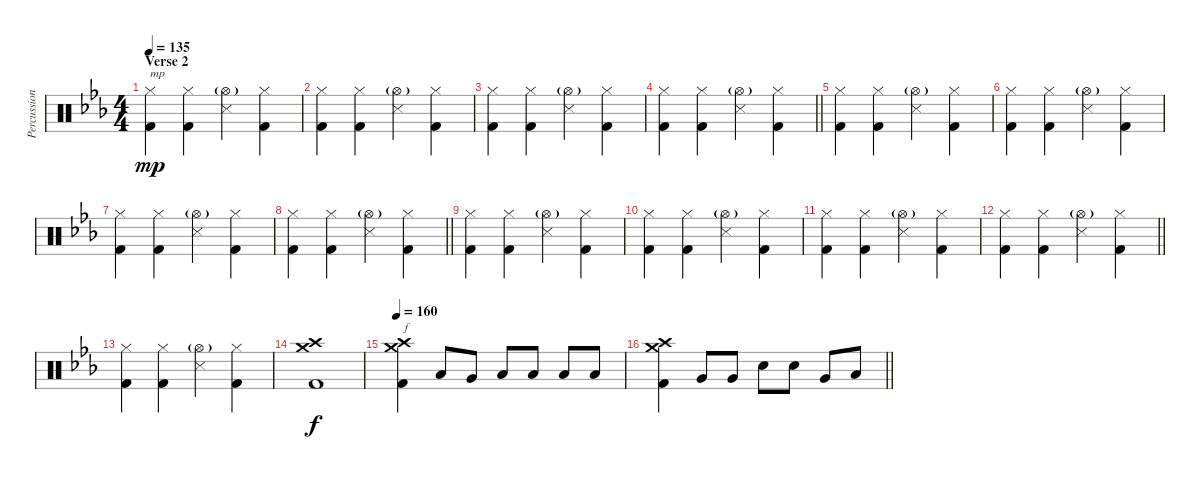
\track ("Percussion" "Percussion") {instrument percussion}
\staff {score}
\articulation defaults
\ts (4 4)
\section ("" "Verse 2")
\tempo 135
\clef neutral
\ks eb
("Hi-Hat (closed)" "Kick (hit) 2").4{txt "mp" dy mp} ("Hi-Hat (closed)" "Kick (hit) 2").4 ("Hi-Hat (open)"{g} "Snare (side stick) 3").4 ("Hi-Hat (closed)" "Kick (hit) 2").4 |
("Hi-Hat (closed)" "Kick (hit) 2").4 ("Hi-Hat (closed)" "Kick (hit) 2").4 ("Hi-Hat (open)"{g} "Snare (side stick) 3").4 ("Hi-Hat (closed)" "Kick (hit) 2").4 |
("Hi-Hat (closed)" "Kick (hit) 2").4 ("Hi-Hat (closed)" "Kick (hit) 2").4 ("Hi-Hat (open)"{g} "Snare (side stick) 3").4 ("Hi-Hat (closed)" "Kick (hit) 2").4 |
\barLineRight lightlight
("Hi-Hat (closed)" "Kick (hit) 2").4 ("Hi-Hat (closed)" "Kick (hit) 2").4 ("Hi-Hat (open)"{g} "Snare (side stick) 3").4 ("Hi-Hat (closed)" "Kick (hit) 2").4 |
\section ("" "")
("Hi-Hat (closed)" "Kick (hit) 2").4 ("Hi-Hat (closed)" "Kick (hit) 2").4 ("Hi-Hat (open)"{g} "Snare (side stick) 3").4 ("Hi-Hat (closed)" "Kick (hit) 2").4 |
("Hi-Hat (closed)" "Kick (hit) 2").4 ("Hi-Hat (closed)" "Kick (hit) 2").4 ("Hi-Hat (open)"{g} "Snare (side stick) 3").4 ("Hi-Hat (closed)" "Kick (hit) 2").4 |
("Hi-Hat (closed)" "Kick (hit) 2").4 ("Hi-Hat (closed)" "Kick (hit) 2").4 ("Hi-Hat (open)"{g} "Snare (side stick) 3").4 ("Hi-Hat (closed)" "Kick (hit) 2").4 |
\barLineRight lightlight
("Hi-Hat (closed)" "Kick (hit) 2").4 ("Hi-Hat (closed)" "Kick (hit) 2").4 ("Hi-Hat (open)"{g} "Snare (side stick) 3").4 ("Hi-Hat (closed)" "Kick (hit) 2").4 |
\section ("" "")
("Hi-Hat (closed)" "Kick (hit) 2").4 ("Hi-Hat (closed)" "Kick (hit) 2").4 ("Hi-Hat (open)"{g} "Snare (side stick) 3").4 ("Hi-Hat (closed)" "Kick (hit) 2").4 |
("Hi-Hat (closed)" "Kick (hit) 2").4 ("Hi-Hat (closed)" "Kick (hit) 2").4 ("Hi-Hat (open)"{g} "Snare (side stick) 3").4 ("Hi-Hat (closed)" "Kick (hit) 2").4 |
("Hi-Hat (closed)" "Kick (hit) 2").4 ("Hi-Hat (closed)" "Kick (hit) 2").4 ("Hi-Hat (open)"{g} "Snare (side stick) 3").4 ("Hi-Hat (closed)" "Kick (hit) 2").4 |
\barLineRight lightlight
("Hi-Hat (closed)" "Kick (hit) 2").4 ("Hi-Hat (closed)" "Kick (hit) 2").4 ("Hi-Hat (open)"{g} "Snare (side stick) 3").4 ("Hi-Hat (closed)" "Kick (hit) 2").4 |
\section ("" "")
("Hi-Hat (closed)" "Kick (hit) 2").4 ("Hi-Hat (closed)" "Kick (hit) 2").4 ("Hi-Hat (open)"{g} "Snare (side stick) 3").4 ("Hi-Hat (closed)" "Kick (hit) 2").4 |
("Crash high (hit)" "Crash medium (hit)" "Kick (hit) 2").1{dy f} |
\tempo 160
("Crash high (hit)" "Crash medium (hit)" "Kick (hit) 2").4{txt "f"} "Low Tom (hit)".8 "Very Low Tom (hit)".8 "Low Floor Tom (hit)".8 "Low Floor Tom (hit)".8 "Low Floor Tom (hit)".8 "Low Floor Tom (hit)".8 |
\barLineRight lightlight
("Crash high (hit)" "Crash medium (hit)" "Kick (hit) 2").4 "Very Low Tom (hit)".8 "Very Low Tom (hit)".8 "Snare (hit) 2".8 "Snare (hit) 2".8 "Very Low Tom (hit)".8 "Low Floor Tom (hit)".8
